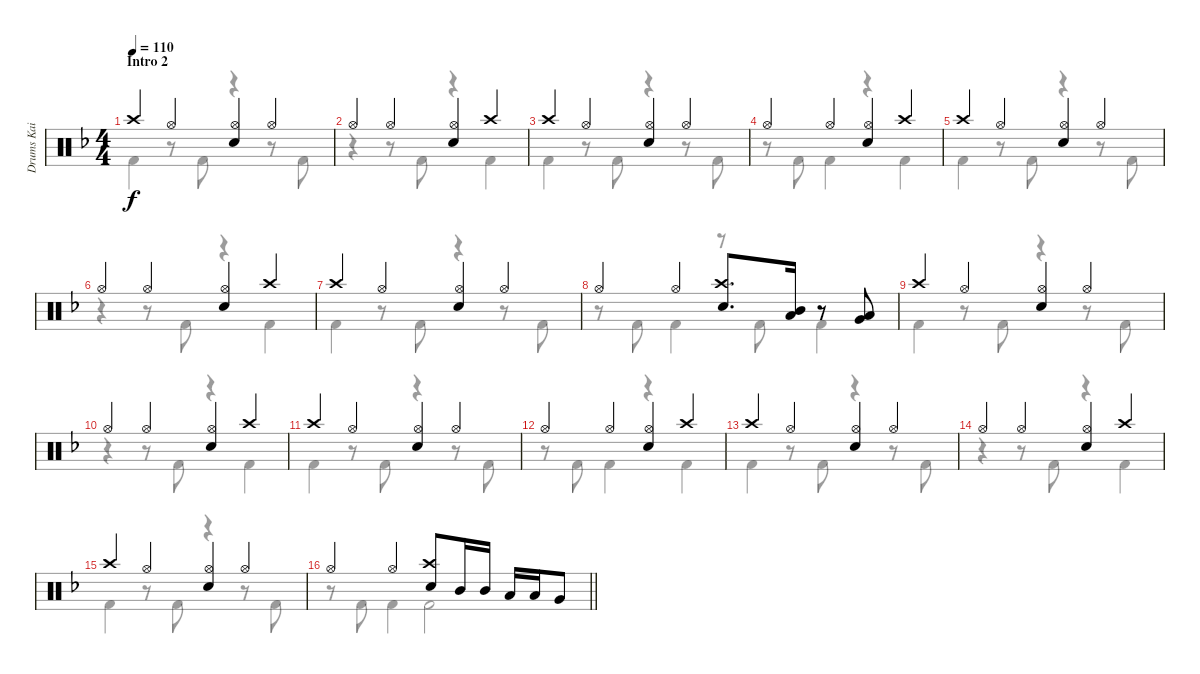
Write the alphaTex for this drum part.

\track ("Drums Kai" "Drums Kai") {instrument percussion}
\staff {score}
\articulation defaults
\voice
\ts (4 4)
\section ("" "Intro 2")
\tempo 110
\clef neutral
\ks f "Crash high (hit)".4{dy f} "Hi-Hat (open)".4
("Hi-Hat (open)" "Electric Snare (hit)").4 "Hi-Hat (open)".4 |
"Hi-Hat (open)".4 "Hi-Hat (open)".4 ("Hi-Hat (open)" "Electric Snare (hit)").4 "Crash high (hit)".4 |
"Crash high (hit)".4 "Hi-Hat (open)".4 ("Hi-Hat (open)" "Electric Snare (hit)").4 "Hi-Hat (open)".4 |
"Hi-Hat (open)".4 "Hi-Hat (open)".4 ("Hi-Hat (open)" "Electric Snare (hit)").4 "Crash high (hit)".4 |
"Crash high (hit)".4 "Hi-Hat (open)".4 ("Hi-Hat (open)" "Electric Snare (hit)").4 "Hi-Hat (open)".4 |
"Hi-Hat (open)".4 "Hi-Hat (open)".4 ("Hi-Hat (open)" "Electric Snare (hit)").4 "Crash high (hit)".4 |
"Crash high (hit)".4 "Hi-Hat (open)".4 ("Hi-Hat (open)" "Electric Snare (hit)").4 "Hi-Hat (open)".4 |
"Hi-Hat (open)".4 "Hi-Hat (open)".4 ("Crash high (hit)" "Electric Snare (hit)").8{d} ("Mid Tom (hit)" "Low Tom (hit)").16 r.8 ("Low Tom (hit)" "Very Low Tom (hit)").8 |
"Crash high (hit)".4 "Hi-Hat (open)".4 ("Hi-Hat (open)" "Electric Snare (hit)").4 "Hi-Hat (open)".4 |
"Hi-Hat (open)".4 "Hi-Hat (open)".4 ("Hi-Hat (open)" "Electric Snare (hit)").4 "Crash high (hit)".4 |
"Crash high (hit)".4 "Hi-Hat (open)".4 ("Hi-Hat (open)" "Electric Snare (hit)").4 "Hi-Hat (open)".4 |
"Hi-Hat (open)".4 "Hi-Hat (open)".4 ("Hi-Hat (open)" "Electric Snare (hit)").4 "Crash high (hit)".4 |
"Crash high (hit)".4 "Hi-Hat (open)".4 ("Hi-Hat (open)" "Electric Snare (hit)").4 "Hi-Hat (open)".4 |
"Hi-Hat (open)".4 "Hi-Hat (open)".4 ("Hi-Hat (open)" "Electric Snare (hit)").4 "Crash high (hit)".4 |
"Crash high (hit)".4 "Hi-Hat (open)".4 ("Hi-Hat (open)" "Electric Snare (hit)").4 "Hi-Hat (open)".4 |
\barLineRight lightlight "Hi-Hat (open)".4 "Hi-Hat (open)".4
("Crash high (hit)" "Electric Snare (hit)").8 "Mid Tom (hit)".16 "Mid Tom (hit)".16 "Low Tom (hit)".16 "Low Tom (hit)".16 "Very Low Tom (hit)".8
\voice
\clef neutral
\ottava regular
\simile none
\ks f "Kick (hit) 2".4{dy f}
r.8 "Kick (hit) 2".8 r.4 r.8 "Kick (hit) 2".8 |
r.4 r.8 "Kick (hit) 2".8 r.4 "Kick (hit) 2".4 |
"Kick (hit) 2".4 r.8 "Kick (hit) 2".8 r.4 r.8 "Kick (hit) 2".8 |
r.8 "Kick (hit) 2".8 "Kick (hit) 2".4 r.4 "Kick (hit) 2".4 |
"Kick (hit) 2".4 r.8 "Kick (hit) 2".8 r.4 r.8 "Kick (hit) 2".8 |
r.4 r.8 "Kick (hit) 2".8 r.4 "Kick (hit) 2".4 |
"Kick (hit) 2".4 r.8 "Kick (hit) 2".8 r.4 r.8 "Kick (hit) 2".8 |
r.8 "Kick (hit) 2".8 "Kick (hit) 2".4 r.8 "Kick (hit) 2".8 "Kick (hit) 2".4 |
"Kick (hit) 2".4 r.8 "Kick (hit) 2".8 r.4 r.8 "Kick (hit) 2".8 |
r.4 r.8 "Kick (hit) 2".8 r.4 "Kick (hit) 2".4 |
"Kick (hit) 2".4 r.8 "Kick (hit) 2".8 r.4 r.8 "Kick (hit) 2".8 |
r.8 "Kick (hit) 2".8 "Kick (hit) 2".4 r.4 "Kick (hit) 2".4 |
"Kick (hit) 2".4 r.8 "Kick (hit) 2".8 r.4 r.8 "Kick (hit) 2".8 |
r.4 r.8 "Kick (hit) 2".8 r.4 "Kick (hit) 2".4 |
"Kick (hit) 2".4 r.8 "Kick (hit) 2".8 r.4 r.8 "Kick (hit) 2".8 |
\barLineRight lightlight
r.8 "Kick (hit) 2".8 "Kick (hit) 2".4 "Kick (hit) 2".2
